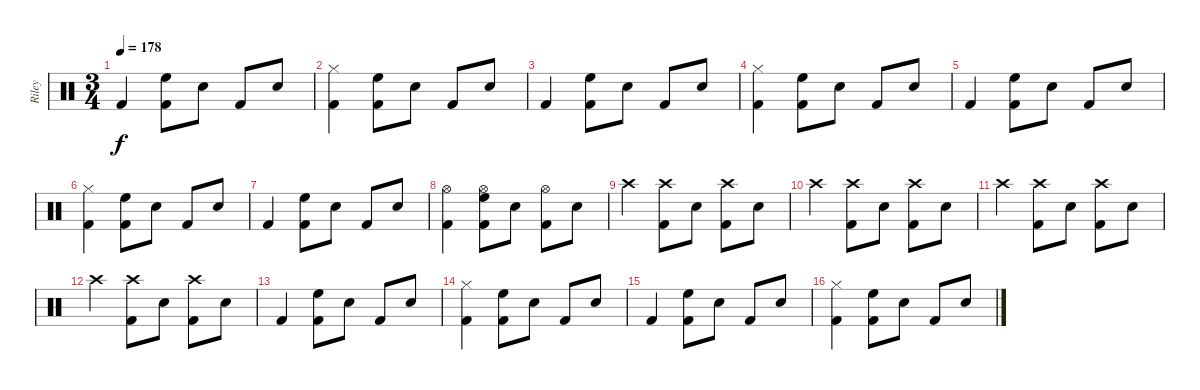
\track ("Riley" "Riley") {instrument percussion}
\staff {score}
\articulation defaults
\ts (3 4)
\tempo 178
\clef neutral
\ks c "Kick (hit) 2".4{dy f}
("High Floor Tom (hit)" "Kick (hit) 2").8 "Snare (hit) 2".8 "Kick (hit) 2".8 "Snare (hit) 2".8 |
("Hi-Hat (closed)" "Kick (hit) 2").4 ("High Floor Tom (hit)" "Kick (hit) 2").8 "Snare (hit) 2".8 "Kick (hit) 2".8 "Snare (hit) 2".8 |
"Kick (hit) 2".4 ("High Floor Tom (hit)" "Kick (hit) 2").8 "Snare (hit) 2".8 "Kick (hit) 2".8 "Snare (hit) 2".8 |
("Hi-Hat (closed)" "Kick (hit) 2").4 ("High Floor Tom (hit)" "Kick (hit) 2").8 "Snare (hit) 2".8 "Kick (hit) 2".8 "Snare (hit) 2".8 |
"Kick (hit) 2".4 ("High Floor Tom (hit)" "Kick (hit) 2").8 "Snare (hit) 2".8 "Kick (hit) 2".8 "Snare (hit) 2".8 |
("Hi-Hat (closed)" "Kick (hit) 2").4 ("High Floor Tom (hit)" "Kick (hit) 2").8 "Snare (hit) 2".8 "Kick (hit) 2".8 "Snare (hit) 2".8 |
"Kick (hit) 2".4 ("High Floor Tom (hit)" "Kick (hit) 2").8 "Snare (hit) 2".8 "Kick (hit) 2".8 "Snare (hit) 2".8 |
("Hi-Hat (open)" "Kick (hit) 2").4 ("Hi-Hat (open)" "High Floor Tom (hit)" "Kick (hit) 2").8 "Snare (hit) 2".8 ("Hi-Hat (open)" "Kick (hit) 2").8 "Snare (hit) 2".8 |
"Crash high (hit)".4 ("Crash high (hit)" "Kick (hit) 2").8 "Snare (hit) 2".8 ("Crash high (hit)" "Kick (hit) 2").8 "Snare (hit) 2".8 |
"Crash high (hit)".4 ("Crash high (hit)" "Kick (hit) 2").8 "Snare (hit) 2".8 ("Crash high (hit)" "Kick (hit) 2").8 "Snare (hit) 2".8 |
"Crash high (hit)".4 ("Crash high (hit)" "Kick (hit) 2").8 "Snare (hit) 2".8 ("Crash high (hit)" "Kick (hit) 2").8 "Snare (hit) 2".8 |
"Crash high (hit)".4 ("Crash high (hit)" "Kick (hit) 2").8 "Snare (hit) 2".8 ("Crash high (hit)" "Kick (hit) 2").8 "Snare (hit) 2".8 |
"Kick (hit) 2".4 ("High Floor Tom (hit)" "Kick (hit) 2").8 "Snare (hit) 2".8 "Kick (hit) 2".8 "Snare (hit) 2".8 |
("Hi-Hat (closed)" "Kick (hit) 2").4 ("High Floor Tom (hit)" "Kick (hit) 2").8 "Snare (hit) 2".8 "Kick (hit) 2".8 "Snare (hit) 2".8 |
"Kick (hit) 2".4 ("High Floor Tom (hit)" "Kick (hit) 2").8 "Snare (hit) 2".8 "Kick (hit) 2".8 "Snare (hit) 2".8 |
("Hi-Hat (closed)" "Kick (hit) 2").4 ("High Floor Tom (hit)" "Kick (hit) 2").8 "Snare (hit) 2".8 "Kick (hit) 2".8 "Snare (hit) 2".8
